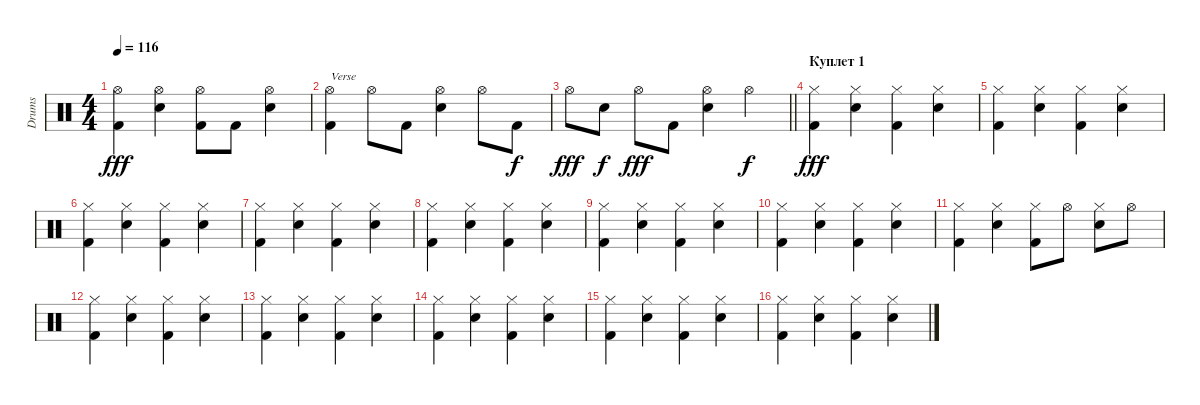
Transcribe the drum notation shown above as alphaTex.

\track ("Drums" "Drums") {instrument percussion}
\staff {score}
\articulation defaults
\ts (4 4)
\tempo 116
\clef neutral
\ks c
("Hi-Hat (open)" "Kick (hit) 2").4{dy fff} ("Hi-Hat (open)" "Snare (hit) 2").4 ("Hi-Hat (open)" "Kick (hit) 2").8 "Kick (hit) 2".8 ("Hi-Hat (open)" "Snare (hit) 2").4 |
("Hi-Hat (open)" "Kick (hit) 2").4{txt "Verse"} "Hi-Hat (open)".8 "Kick (hit) 2".8 ("Hi-Hat (open)" "Snare (hit) 2").4 "Hi-Hat (open)".8 "Kick (hit) 2".8{dy f} |
\barLineRight lightlight "Hi-Hat (open)".8{dy fff} "Snare (hit) 2".8{dy f} "Hi-Hat (open)".8{dy fff} "Kick (hit) 2".8
("Hi-Hat (open)" "Snare (hit) 2").4 "Hi-Hat (open)".4{dy f} |
\section ("" "Куплет 1")
("Hi-Hat (closed)" "Kick (hit) 2").4{dy fff} ("Hi-Hat (closed)" "Snare (hit) 2").4 ("Hi-Hat (closed)" "Kick (hit) 2").4 ("Hi-Hat (closed)" "Snare (hit) 2").4 |
("Hi-Hat (closed)" "Kick (hit) 2").4 ("Hi-Hat (closed)" "Snare (hit) 2").4 ("Hi-Hat (closed)" "Kick (hit) 2").4 ("Hi-Hat (closed)" "Snare (hit) 2").4 |
("Hi-Hat (closed)" "Kick (hit) 2").4 ("Hi-Hat (closed)" "Snare (hit) 2").4 ("Hi-Hat (closed)" "Kick (hit) 2").4 ("Hi-Hat (closed)" "Snare (hit) 2").4 |
("Hi-Hat (closed)" "Kick (hit) 2").4 ("Hi-Hat (closed)" "Snare (hit) 2").4 ("Hi-Hat (closed)" "Kick (hit) 2").4 ("Hi-Hat (closed)" "Snare (hit) 2").4 |
("Hi-Hat (closed)" "Kick (hit) 2").4 ("Hi-Hat (closed)" "Snare (hit) 2").4 ("Hi-Hat (closed)" "Kick (hit) 2").4 ("Hi-Hat (closed)" "Snare (hit) 2").4 |
("Hi-Hat (closed)" "Kick (hit) 2").4 ("Hi-Hat (closed)" "Snare (hit) 2").4 ("Hi-Hat (closed)" "Kick (hit) 2").4 ("Hi-Hat (closed)" "Snare (hit) 2").4 |
("Hi-Hat (closed)" "Kick (hit) 2").4 ("Hi-Hat (closed)" "Snare (hit) 2").4 ("Hi-Hat (closed)" "Kick (hit) 2").4 ("Hi-Hat (closed)" "Snare (hit) 2").4 |
("Hi-Hat (closed)" "Kick (hit) 2").4 ("Hi-Hat (closed)" "Snare (hit) 2").4 ("Hi-Hat (closed)" "Kick (hit) 2").8 "Hi-Hat (open)".8 ("Hi-Hat (closed)" "Snare (hit) 2").8 "Hi-Hat (open)".8 |
("Hi-Hat (closed)" "Kick (hit) 2").4 ("Hi-Hat (closed)" "Snare (hit) 2").4 ("Hi-Hat (closed)" "Kick (hit) 2").4 ("Hi-Hat (closed)" "Snare (hit) 2").4 |
("Hi-Hat (closed)" "Kick (hit) 2").4 ("Hi-Hat (closed)" "Snare (hit) 2").4 ("Hi-Hat (closed)" "Kick (hit) 2").4 ("Hi-Hat (closed)" "Snare (hit) 2").4 |
("Hi-Hat (closed)" "Kick (hit) 2").4 ("Hi-Hat (closed)" "Snare (hit) 2").4 ("Hi-Hat (closed)" "Kick (hit) 2").4 ("Hi-Hat (closed)" "Snare (hit) 2").4 |
("Hi-Hat (closed)" "Kick (hit) 2").4 ("Hi-Hat (closed)" "Snare (hit) 2").4 ("Hi-Hat (closed)" "Kick (hit) 2").4 ("Hi-Hat (closed)" "Snare (hit) 2").4 |
("Hi-Hat (closed)" "Kick (hit) 2").4 ("Hi-Hat (closed)" "Snare (hit) 2").4 ("Hi-Hat (closed)" "Kick (hit) 2").4 ("Hi-Hat (closed)" "Snare (hit) 2").4
